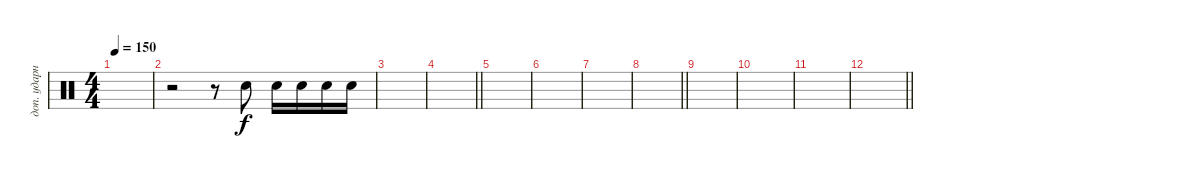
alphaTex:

\track ("доп. ударные" "доп. ударн") {instrument percussion}
\staff {score}
\articulation defaults
\ts (4 4)
\tempo 150
\clef neutral
\ks c
|
r.2 r.8 "Snare (hit) 2".8 "Snare (hit) 2".16 "Snare (hit) 2".16 "Snare (hit) 2".16 "Snare (hit) 2".16 |
|
\barLineRight lightlight
|
\section ("" " ")
|
|
|
\barLineRight lightlight
|
|
|
|
\barLineRight lightlight
